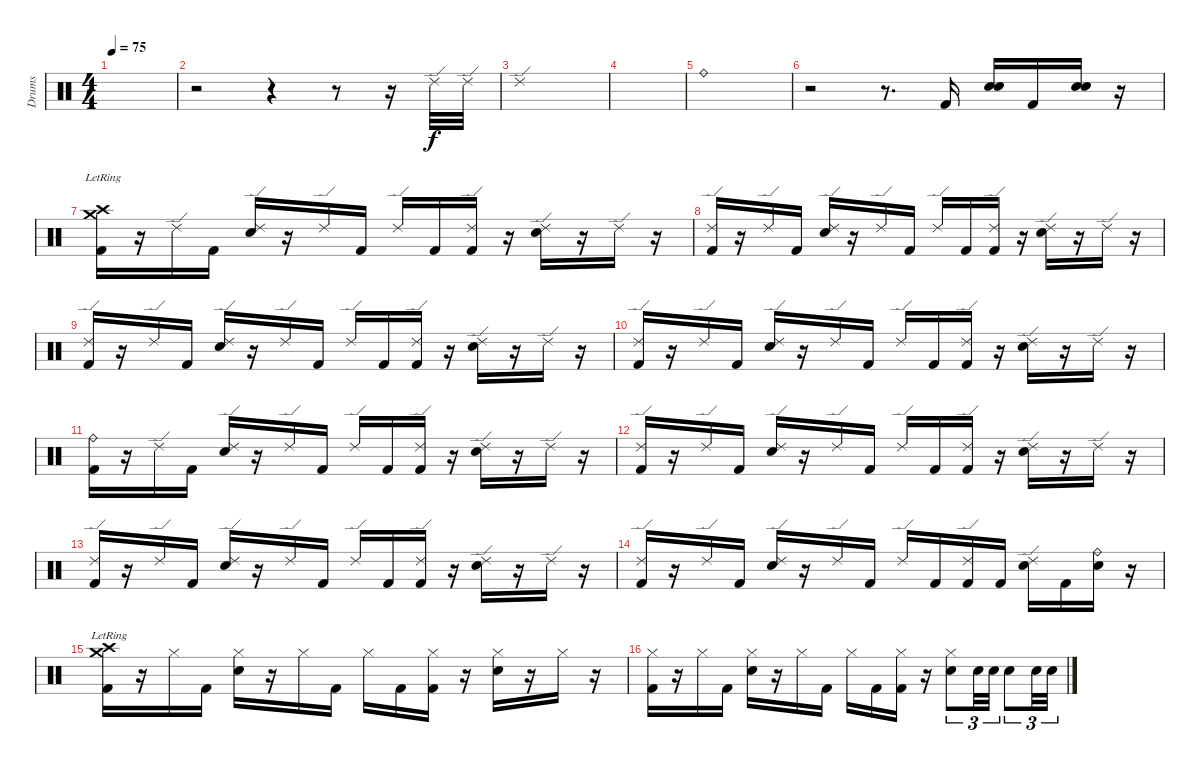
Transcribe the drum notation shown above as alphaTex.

\track ("Drums" "Drums") {instrument percussion}
\staff {score}
\articulation defaults
\ts (4 4)
\tempo 75
\clef neutral
\ks c
|
r.2 r.4 r.8 r.16 "Ride (edge) 2".32 "Ride (edge) 2".32 |
"Ride (edge) 2".1 |
|
"Ride (bell)".1 |
r.2 r.8{d} "Kick (hit) 2".16 ("Snare (hit) 2" "Snare (hit) 2").16 "Kick (hit) 2".16 ("Snare (hit) 2" "Snare (hit) 2").16 r.16 |
("Crash high (hit)"{lr} "Crash medium (hit)"{lr} "Kick (hit) 2").16 r.16 "Ride (edge) 2".16 "Kick (hit) 2".16 ("Ride (edge) 2" "Snare (hit) 2").16 r.16 "Ride (edge) 2".16 "Kick (hit) 2".16 "Ride (edge) 2".16 "Kick (hit) 2".16 ("Ride (edge) 2" "Kick (hit) 2").16 r.16 ("Ride (edge) 2" "Snare (hit) 2").16 r.16 "Ride (edge) 2".16 r.16 |
("Ride (edge) 2" "Kick (hit) 2").16 r.16 "Ride (edge) 2".16 "Kick (hit) 2".16 ("Ride (edge) 2" "Snare (hit) 2").16 r.16 "Ride (edge) 2".16 "Kick (hit) 2".16 "Ride (edge) 2".16 "Kick (hit) 2".16 ("Ride (edge) 2" "Kick (hit) 2").16 r.16 ("Ride (edge) 2" "Snare (hit) 2").16 r.16 "Ride (edge) 2".16 r.16 |
("Ride (edge) 2" "Kick (hit) 2").16 r.16 "Ride (edge) 2".16 "Kick (hit) 2".16 ("Ride (edge) 2" "Snare (hit) 2").16 r.16 "Ride (edge) 2".16 "Kick (hit) 2".16 "Ride (edge) 2".16 "Kick (hit) 2".16 ("Ride (edge) 2" "Kick (hit) 2").16 r.16 ("Ride (edge) 2" "Snare (hit) 2").16 r.16 "Ride (edge) 2".16 r.16 |
("Ride (edge) 2" "Kick (hit) 2").16 r.16 "Ride (edge) 2".16 "Kick (hit) 2".16 ("Ride (edge) 2" "Snare (hit) 2").16 r.16 "Ride (edge) 2".16 "Kick (hit) 2".16 "Ride (edge) 2".16 "Kick (hit) 2".16 ("Ride (edge) 2" "Kick (hit) 2").16 r.16 ("Ride (edge) 2" "Snare (hit) 2").16 r.16 "Ride (edge) 2".16 r.16 |
("Ride (bell)" "Kick (hit) 2").16 r.16 "Ride (edge) 2".16 "Kick (hit) 2".16 ("Ride (edge) 2" "Snare (hit) 2").16 r.16 "Ride (edge) 2".16 "Kick (hit) 2".16 "Ride (edge) 2".16 "Kick (hit) 2".16 ("Ride (edge) 2" "Kick (hit) 2").16 r.16 ("Ride (edge) 2" "Snare (hit) 2").16 r.16 "Ride (edge) 2".16 r.16 |
("Ride (edge) 2" "Kick (hit) 2").16 r.16 "Ride (edge) 2".16 "Kick (hit) 2".16 ("Ride (edge) 2" "Snare (hit) 2").16 r.16 "Ride (edge) 2".16 "Kick (hit) 2".16 "Ride (edge) 2".16 "Kick (hit) 2".16 ("Ride (edge) 2" "Kick (hit) 2").16 r.16 ("Ride (edge) 2" "Snare (hit) 2").16 r.16 "Ride (edge) 2".16 r.16 |
("Ride (edge) 2" "Kick (hit) 2").16 r.16 "Ride (edge) 2".16 "Kick (hit) 2".16 ("Ride (edge) 2" "Snare (hit) 2").16 r.16 "Ride (edge) 2".16 "Kick (hit) 2".16 "Ride (edge) 2".16 "Kick (hit) 2".16 ("Ride (edge) 2" "Kick (hit) 2").16 r.16 ("Ride (edge) 2" "Snare (hit) 2").16 r.16 "Ride (edge) 2".16 r.16 |
("Ride (edge) 2" "Kick (hit) 2").16 r.16 "Ride (edge) 2".16 "Kick (hit) 2".16 ("Ride (edge) 2" "Snare (hit) 2").16 r.16 "Ride (edge) 2".16 "Kick (hit) 2".16 "Ride (edge) 2".16 "Kick (hit) 2".16 ("Ride (edge) 2" "Kick (hit) 2").16 "Kick (hit) 2".16 ("Ride (edge) 2" "Snare (hit) 2").16 "Kick (hit) 2".16 ("Ride (bell)" "Snare (hit) 2").16 r.16 |
("Crash high (hit)"{lr} "Crash medium (hit)"{lr} "Kick (hit) 2").16 r.16 "Hi-Hat (closed)".16 "Kick (hit) 2".16 ("Hi-Hat (closed)" "Snare (hit) 2").16 r.16 "Hi-Hat (closed)".16 "Kick (hit) 2".16 "Hi-Hat (closed)".16 "Kick (hit) 2".16 ("Hi-Hat (closed)" "Kick (hit) 2").16 r.16 ("Hi-Hat (closed)" "Snare (hit) 2").16 r.16 "Hi-Hat (closed)".16 r.16 |
("Hi-Hat (closed)" "Kick (hit) 2").16 r.16 "Hi-Hat (closed)".16 "Kick (hit) 2".16 ("Hi-Hat (closed)" "Snare (hit) 2").16 r.16 "Hi-Hat (closed)".16 "Kick (hit) 2".16 "Hi-Hat (closed)".16 "Kick (hit) 2".16 ("Hi-Hat (closed)" "Kick (hit) 2").16 r.16 ("Hi-Hat (closed)" "Snare (hit) 2").8{tu (3 2)} "Snare (hit) 2".32{tu (3 2)} "Snare (hit) 2".32{tu (3 2)} "Snare (hit) 2".8{tu (3 2)} "Snare (hit) 2".32{tu (3 2)} "Snare (hit) 2".32{tu (3 2)}
